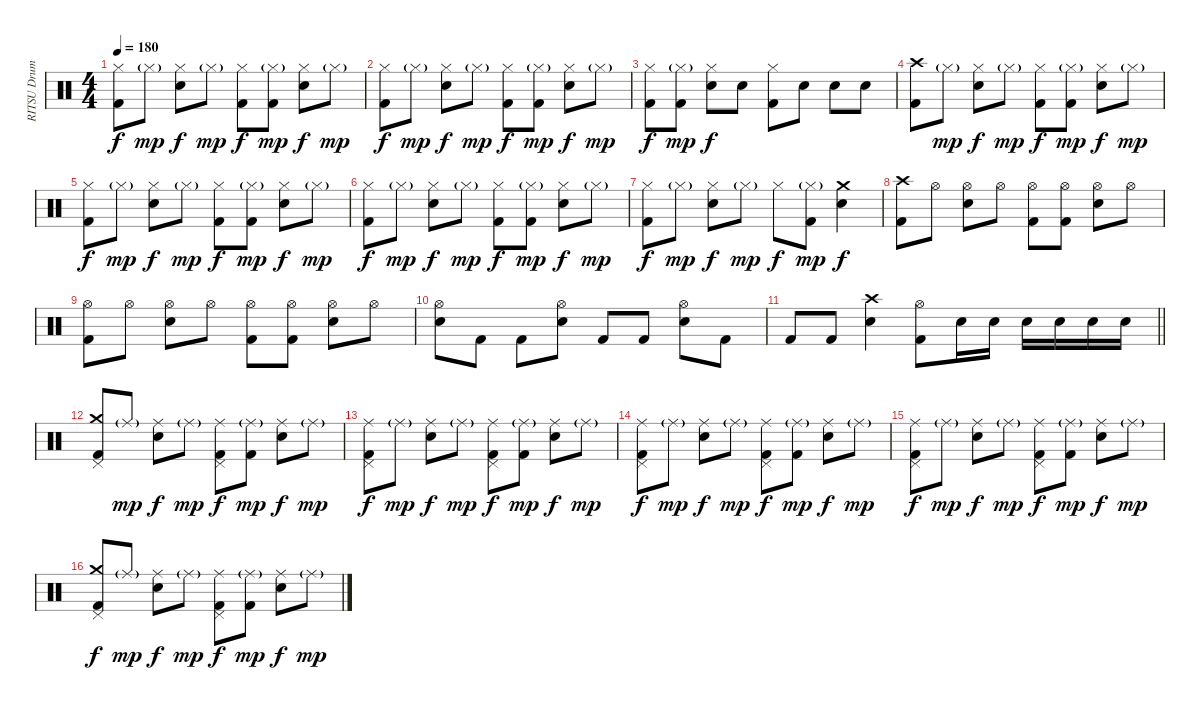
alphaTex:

\track ("RITSU Drums" "RITSU Drum") {instrument percussion}
\staff {score}
\articulation defaults
\ts (4 4)
\tempo 180
\clef neutral
\ks c
("Hi-Hat (closed)" "Kick (hit) 2").8{dy f} "Hi-Hat (closed)"{g}.8{dy mp} ("Hi-Hat (closed)" "Electric Snare (hit)").8{dy f} "Hi-Hat (closed)"{g}.8{dy mp} ("Hi-Hat (closed)" "Kick (hit) 2").8{dy f} ("Hi-Hat (closed)"{g} "Kick (hit) 2").8{dy mp} ("Hi-Hat (closed)" "Electric Snare (hit)").8{dy f} "Hi-Hat (closed)"{g}.8{dy mp} |
("Hi-Hat (closed)" "Kick (hit) 2").8{dy f} "Hi-Hat (closed)"{g}.8{dy mp} ("Hi-Hat (closed)" "Electric Snare (hit)").8{dy f} "Hi-Hat (closed)"{g}.8{dy mp} ("Hi-Hat (closed)" "Kick (hit) 2").8{dy f} ("Hi-Hat (closed)"{g} "Kick (hit) 2").8{dy mp} ("Hi-Hat (closed)" "Electric Snare (hit)").8{dy f} "Hi-Hat (closed)"{g}.8{dy mp} |
("Hi-Hat (closed)" "Kick (hit) 2").8{dy f} ("Hi-Hat (closed)"{g} "Kick (hit) 2").8{dy mp} ("Hi-Hat (closed)" "Electric Snare (hit)").8{dy f} "Electric Snare (hit)".8 ("Hi-Hat (closed)" "Kick (hit) 2").8 "Electric Snare (hit)".8 "Electric Snare (hit)".8 "Electric Snare (hit)".8 |
("Crash high (hit)" "Kick (hit) 2").8 "Hi-Hat (closed)"{g}.8{dy mp} ("Hi-Hat (closed)" "Electric Snare (hit)").8{dy f} "Hi-Hat (closed)"{g}.8{dy mp} ("Hi-Hat (closed)" "Kick (hit) 2").8{dy f} ("Hi-Hat (closed)"{g} "Kick (hit) 2").8{dy mp} ("Hi-Hat (closed)" "Electric Snare (hit)").8{dy f} "Hi-Hat (closed)"{g}.8{dy mp} |
("Hi-Hat (closed)" "Kick (hit) 2").8{dy f} "Hi-Hat (closed)"{g}.8{dy mp} ("Hi-Hat (closed)" "Electric Snare (hit)").8{dy f} "Hi-Hat (closed)"{g}.8{dy mp} ("Hi-Hat (closed)" "Kick (hit) 2").8{dy f} ("Hi-Hat (closed)"{g} "Kick (hit) 2").8{dy mp} ("Hi-Hat (closed)" "Electric Snare (hit)").8{dy f} "Hi-Hat (closed)"{g}.8{dy mp} |
("Hi-Hat (closed)" "Kick (hit) 2").8{dy f} "Hi-Hat (closed)"{g}.8{dy mp} ("Hi-Hat (closed)" "Electric Snare (hit)").8{dy f} "Hi-Hat (closed)"{g}.8{dy mp} ("Hi-Hat (closed)" "Kick (hit) 2").8{dy f} ("Hi-Hat (closed)"{g} "Kick (hit) 2").8{dy mp} ("Hi-Hat (closed)" "Electric Snare (hit)").8{dy f} "Hi-Hat (closed)"{g}.8{dy mp} |
("Hi-Hat (closed)" "Kick (hit) 2").8{dy f} "Hi-Hat (closed)"{g}.8{dy mp} ("Hi-Hat (closed)" "Electric Snare (hit)").8{dy f} "Hi-Hat (closed)"{g}.8{dy mp} "Hi-Hat (closed)".8{dy f} ("Hi-Hat (closed)"{g} "Kick (hit) 2").8{dy mp} ("Crash medium (hit)" "Electric Snare (hit)").4{dy f} |
("Crash high (hit)" "Kick (hit) 2").8 "Hi-Hat (open)".8 ("Hi-Hat (open)" "Electric Snare (hit)").8 "Hi-Hat (open)".8 ("Hi-Hat (open)" "Kick (hit) 2").8 ("Hi-Hat (open)" "Kick (hit) 2").8 ("Hi-Hat (open)" "Electric Snare (hit)").8 "Hi-Hat (open)".8 |
("Hi-Hat (open)" "Kick (hit) 2").8 "Hi-Hat (open)".8 ("Hi-Hat (open)" "Electric Snare (hit)").8 "Hi-Hat (open)".8 ("Hi-Hat (open)" "Kick (hit) 2").8 ("Hi-Hat (open)" "Kick (hit) 2").8 ("Hi-Hat (open)" "Electric Snare (hit)").8 "Hi-Hat (open)".8 |
("Hi-Hat (open)" "Electric Snare (hit)").8 "Kick (hit) 2".8 "Kick (hit) 2".8 ("Hi-Hat (open)" "Electric Snare (hit)").8 "Kick (hit) 2".8 "Kick (hit) 2".8 ("Hi-Hat (open)" "Electric Snare (hit)").8 "Kick (hit) 2".8 |
\barLineRight lightlight "Kick (hit) 2".8 "Kick (hit) 2".8
("Crash high (hit)" "Electric Snare (hit)").4 ("Hi-Hat (open)" "Kick (hit) 2").8 "Electric Snare (hit)".16 "Electric Snare (hit)".16 "Electric Snare (hit)".16 "Electric Snare (hit)".16 "Electric Snare (hit)".16 "Electric Snare (hit)".16 |
("Crash medium (hit)" "Pedal Hi-Hat (hit)" "Kick (hit) 2").8 "Ride (middle)"{g}.8{dy mp} ("Ride (middle)" "Electric Snare (hit)").8{dy f} "Ride (middle)"{g}.8{dy mp} ("Ride (middle)" "Pedal Hi-Hat (hit)" "Kick (hit) 2").8{dy f} ("Ride (middle)"{g} "Kick (hit) 2").8{dy mp} ("Ride (middle)" "Electric Snare (hit)").8{dy f} "Ride (middle)"{g}.8{dy mp} |
("Ride (middle)" "Pedal Hi-Hat (hit)" "Kick (hit) 2").8{dy f} "Ride (middle)"{g}.8{dy mp} ("Ride (middle)" "Electric Snare (hit)").8{dy f} "Ride (middle)"{g}.8{dy mp} ("Ride (middle)" "Pedal Hi-Hat (hit)" "Kick (hit) 2").8{dy f} ("Ride (middle)"{g} "Kick (hit) 2").8{dy mp} ("Ride (middle)" "Electric Snare (hit)").8{dy f} "Ride (middle)"{g}.8{dy mp} |
("Ride (middle)" "Pedal Hi-Hat (hit)" "Kick (hit) 2").8{dy f} "Ride (middle)"{g}.8{dy mp} ("Ride (middle)" "Electric Snare (hit)").8{dy f} "Ride (middle)"{g}.8{dy mp} ("Ride (middle)" "Pedal Hi-Hat (hit)" "Kick (hit) 2").8{dy f} ("Ride (middle)"{g} "Kick (hit) 2").8{dy mp} ("Ride (middle)" "Electric Snare (hit)").8{dy f} "Ride (middle)"{g}.8{dy mp} |
("Ride (middle)" "Pedal Hi-Hat (hit)" "Kick (hit) 2").8{dy f} "Ride (middle)"{g}.8{dy mp} ("Ride (middle)" "Electric Snare (hit)").8{dy f} "Ride (middle)"{g}.8{dy mp} ("Ride (middle)" "Pedal Hi-Hat (hit)" "Kick (hit) 2").8{dy f} ("Ride (middle)"{g} "Kick (hit) 2").8{dy mp} ("Ride (middle)" "Electric Snare (hit)").8{dy f} "Ride (middle)"{g}.8{dy mp} |
("Crash medium (hit)" "Pedal Hi-Hat (hit)" "Kick (hit) 2").8{dy f} "Ride (middle)"{g}.8{dy mp} ("Ride (middle)" "Electric Snare (hit)").8{dy f} "Ride (middle)"{g}.8{dy mp} ("Ride (middle)" "Pedal Hi-Hat (hit)" "Kick (hit) 2").8{dy f} ("Ride (middle)"{g} "Kick (hit) 2").8{dy mp} ("Ride (middle)" "Electric Snare (hit)").8{dy f} "Ride (middle)"{g}.8{dy mp}
